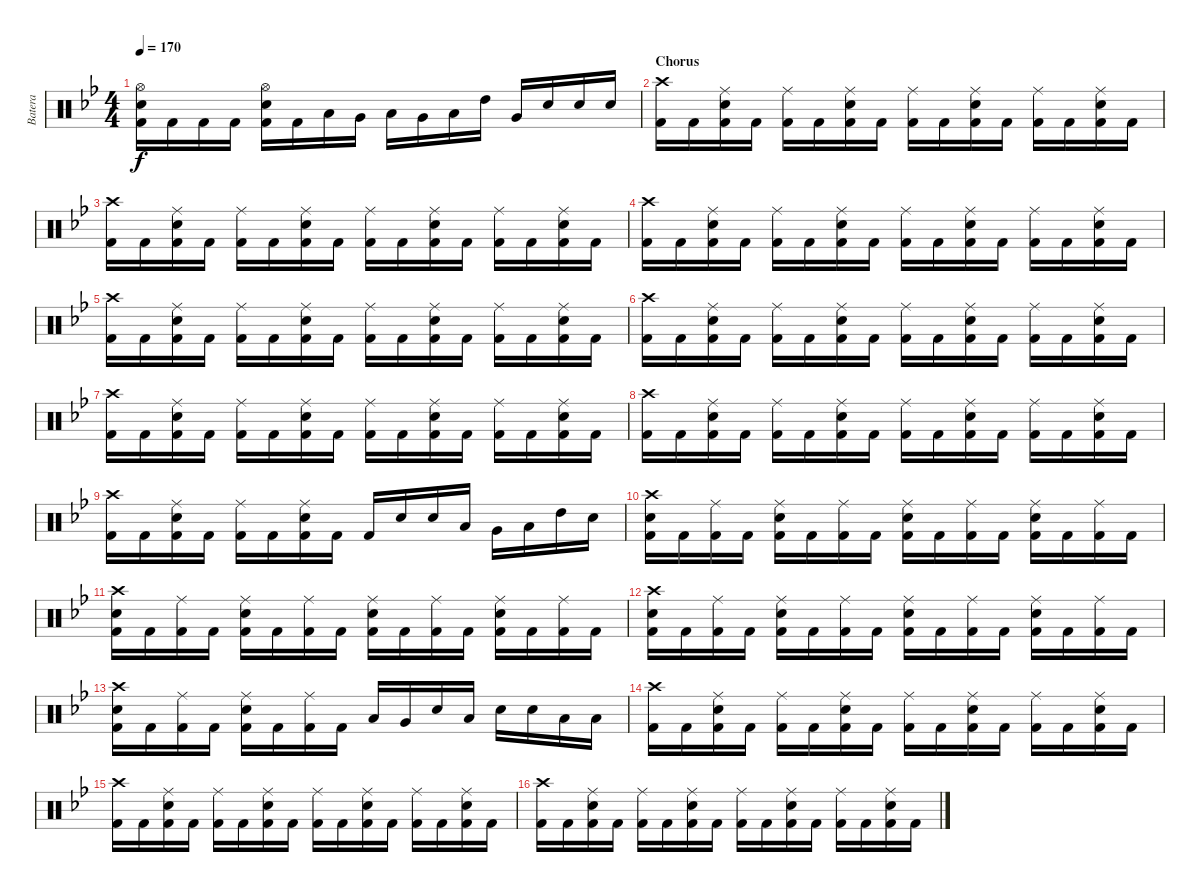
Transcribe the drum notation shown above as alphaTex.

\track ("Batera" "Batera") {instrument percussion}
\staff {score}
\articulation defaults
\ts (4 4)
\tempo 170
\clef neutral
\ks bb
("Hi-Hat (open)" "Electric Snare (hit)" "Kick (hit) 2").16{dy f} "Kick (hit) 2".16 "Kick (hit) 2".16 "Kick (hit) 2".16 ("Hi-Hat (open)" "Electric Snare (hit)" "Kick (hit) 2").16 "Kick (hit) 2".16 "Low Floor Tom (hit)".16 "Very Low Tom (hit)".16 "Low Floor Tom (hit)".16 "Very Low Tom (hit)".16 "Low Tom (hit)".16 "High Tom (hit)".16 "Very Low Tom (hit)".16 "Electric Snare (hit)".16 "Electric Snare (hit)".16 "Electric Snare (hit)".16 |
\section ("" "Chorus")
("Crash high (hit)" "Kick (hit) 2").16 "Kick (hit) 2".16 ("Ride (middle)" "Electric Snare (hit)" "Kick (hit) 2").16 "Kick (hit) 2".16 ("Ride (middle)" "Kick (hit) 2").16 "Kick (hit) 2".16 ("Ride (middle)" "Electric Snare (hit)" "Kick (hit) 2").16 "Kick (hit) 2".16 ("Ride (middle)" "Kick (hit) 2").16 "Kick (hit) 2".16 ("Ride (middle)" "Electric Snare (hit)" "Kick (hit) 2").16 "Kick (hit) 2".16 ("Ride (middle)" "Kick (hit) 2").16 "Kick (hit) 2".16 ("Ride (middle)" "Electric Snare (hit)" "Kick (hit) 2").16 "Kick (hit) 2".16 |
("Crash high (hit)" "Kick (hit) 2").16 "Kick (hit) 2".16 ("Ride (middle)" "Electric Snare (hit)" "Kick (hit) 2").16 "Kick (hit) 2".16 ("Ride (middle)" "Kick (hit) 2").16 "Kick (hit) 2".16 ("Ride (middle)" "Electric Snare (hit)" "Kick (hit) 2").16 "Kick (hit) 2".16 ("Ride (middle)" "Kick (hit) 2").16 "Kick (hit) 2".16 ("Ride (middle)" "Electric Snare (hit)" "Kick (hit) 2").16 "Kick (hit) 2".16 ("Ride (middle)" "Kick (hit) 2").16 "Kick (hit) 2".16 ("Ride (middle)" "Electric Snare (hit)" "Kick (hit) 2").16 "Kick (hit) 2".16 |
("Crash high (hit)" "Kick (hit) 2").16 "Kick (hit) 2".16 ("Ride (middle)" "Electric Snare (hit)" "Kick (hit) 2").16 "Kick (hit) 2".16 ("Ride (middle)" "Kick (hit) 2").16 "Kick (hit) 2".16 ("Ride (middle)" "Electric Snare (hit)" "Kick (hit) 2").16 "Kick (hit) 2".16 ("Ride (middle)" "Kick (hit) 2").16 "Kick (hit) 2".16 ("Ride (middle)" "Electric Snare (hit)" "Kick (hit) 2").16 "Kick (hit) 2".16 ("Ride (middle)" "Kick (hit) 2").16 "Kick (hit) 2".16 ("Ride (middle)" "Electric Snare (hit)" "Kick (hit) 2").16 "Kick (hit) 2".16 |
("Crash high (hit)" "Kick (hit) 2").16 "Kick (hit) 2".16 ("Ride (middle)" "Electric Snare (hit)" "Kick (hit) 2").16 "Kick (hit) 2".16 ("Ride (middle)" "Kick (hit) 2").16 "Kick (hit) 2".16 ("Ride (middle)" "Electric Snare (hit)" "Kick (hit) 2").16 "Kick (hit) 2".16 ("Ride (middle)" "Kick (hit) 2").16 "Kick (hit) 2".16 ("Ride (middle)" "Electric Snare (hit)" "Kick (hit) 2").16 "Kick (hit) 2".16 ("Ride (middle)" "Kick (hit) 2").16 "Kick (hit) 2".16 ("Ride (middle)" "Electric Snare (hit)" "Kick (hit) 2").16 "Kick (hit) 2".16 |
("Crash high (hit)" "Kick (hit) 2").16 "Kick (hit) 2".16 ("Ride (middle)" "Electric Snare (hit)" "Kick (hit) 2").16 "Kick (hit) 2".16 ("Ride (middle)" "Kick (hit) 2").16 "Kick (hit) 2".16 ("Ride (middle)" "Electric Snare (hit)" "Kick (hit) 2").16 "Kick (hit) 2".16 ("Ride (middle)" "Kick (hit) 2").16 "Kick (hit) 2".16 ("Ride (middle)" "Electric Snare (hit)" "Kick (hit) 2").16 "Kick (hit) 2".16 ("Ride (middle)" "Kick (hit) 2").16 "Kick (hit) 2".16 ("Ride (middle)" "Electric Snare (hit)" "Kick (hit) 2").16 "Kick (hit) 2".16 |
("Crash high (hit)" "Kick (hit) 2").16 "Kick (hit) 2".16 ("Ride (middle)" "Electric Snare (hit)" "Kick (hit) 2").16 "Kick (hit) 2".16 ("Ride (middle)" "Kick (hit) 2").16 "Kick (hit) 2".16 ("Ride (middle)" "Electric Snare (hit)" "Kick (hit) 2").16 "Kick (hit) 2".16 ("Ride (middle)" "Kick (hit) 2").16 "Kick (hit) 2".16 ("Ride (middle)" "Electric Snare (hit)" "Kick (hit) 2").16 "Kick (hit) 2".16 ("Ride (middle)" "Kick (hit) 2").16 "Kick (hit) 2".16 ("Ride (middle)" "Electric Snare (hit)" "Kick (hit) 2").16 "Kick (hit) 2".16 |
("Crash high (hit)" "Kick (hit) 2").16 "Kick (hit) 2".16 ("Ride (middle)" "Electric Snare (hit)" "Kick (hit) 2").16 "Kick (hit) 2".16 ("Ride (middle)" "Kick (hit) 2").16 "Kick (hit) 2".16 ("Ride (middle)" "Electric Snare (hit)" "Kick (hit) 2").16 "Kick (hit) 2".16 ("Ride (middle)" "Kick (hit) 2").16 "Kick (hit) 2".16 ("Ride (middle)" "Electric Snare (hit)" "Kick (hit) 2").16 "Kick (hit) 2".16 ("Ride (middle)" "Kick (hit) 2").16 "Kick (hit) 2".16 ("Ride (middle)" "Electric Snare (hit)" "Kick (hit) 2").16 "Kick (hit) 2".16 |
("Crash high (hit)" "Kick (hit) 2").16 "Kick (hit) 2".16 ("Ride (middle)" "Electric Snare (hit)" "Kick (hit) 2").16 "Kick (hit) 2".16 ("Ride (middle)" "Kick (hit) 2").16 "Kick (hit) 2".16 ("Ride (middle)" "Electric Snare (hit)" "Kick (hit) 2").16 "Kick (hit) 2".16 "Kick (hit) 2".16 "Electric Snare (hit)".16 "Electric Snare (hit)".16 "Low Floor Tom (hit)".16 "Very Low Tom (hit)".16 "Low Tom (hit)".16 "High Tom (hit)".16 "Electric Snare (hit)".16 |
("Crash high (hit)" "Electric Snare (hit)" "Kick (hit) 2").16 "Kick (hit) 2".16 ("Ride (middle)" "Kick (hit) 2").16 "Kick (hit) 2".16 ("Ride (middle)" "Electric Snare (hit)" "Kick (hit) 2").16 "Kick (hit) 2".16 ("Ride (middle)" "Kick (hit) 2").16 "Kick (hit) 2".16 ("Ride (middle)" "Electric Snare (hit)" "Kick (hit) 2").16 "Kick (hit) 2".16 ("Ride (middle)" "Kick (hit) 2").16 "Kick (hit) 2".16 ("Ride (middle)" "Electric Snare (hit)" "Kick (hit) 2").16 "Kick (hit) 2".16 ("Ride (middle)" "Kick (hit) 2").16 "Kick (hit) 2".16 |
("Crash high (hit)" "Electric Snare (hit)" "Kick (hit) 2").16 "Kick (hit) 2".16 ("Ride (middle)" "Kick (hit) 2").16 "Kick (hit) 2".16 ("Ride (middle)" "Electric Snare (hit)" "Kick (hit) 2").16 "Kick (hit) 2".16 ("Ride (middle)" "Kick (hit) 2").16 "Kick (hit) 2".16 ("Ride (middle)" "Electric Snare (hit)" "Kick (hit) 2").16 "Kick (hit) 2".16 ("Ride (middle)" "Kick (hit) 2").16 "Kick (hit) 2".16 ("Ride (middle)" "Electric Snare (hit)" "Kick (hit) 2").16 "Kick (hit) 2".16 ("Ride (middle)" "Kick (hit) 2").16 "Kick (hit) 2".16 |
("Crash high (hit)" "Electric Snare (hit)" "Kick (hit) 2").16 "Kick (hit) 2".16 ("Ride (middle)" "Kick (hit) 2").16 "Kick (hit) 2".16 ("Ride (middle)" "Electric Snare (hit)" "Kick (hit) 2").16 "Kick (hit) 2".16 ("Ride (middle)" "Kick (hit) 2").16 "Kick (hit) 2".16 ("Ride (middle)" "Electric Snare (hit)" "Kick (hit) 2").16 "Kick (hit) 2".16 ("Ride (middle)" "Kick (hit) 2").16 "Kick (hit) 2".16 ("Ride (middle)" "Electric Snare (hit)" "Kick (hit) 2").16 "Kick (hit) 2".16 ("Ride (middle)" "Kick (hit) 2").16 "Kick (hit) 2".16 |
("Crash high (hit)" "Electric Snare (hit)" "Kick (hit) 2").16 "Kick (hit) 2".16 ("Ride (middle)" "Kick (hit) 2").16 "Kick (hit) 2".16 ("Ride (middle)" "Electric Snare (hit)" "Kick (hit) 2").16 "Kick (hit) 2".16 ("Ride (middle)" "Kick (hit) 2").16 "Kick (hit) 2".16 "Low Floor Tom (hit)".16 "Very Low Tom (hit)".16 "Electric Snare (hit)".16 "Low Tom (hit)".16 "Electric Snare (hit)".16 "Electric Snare (hit)".16 "Low Floor Tom (hit)".16 "Low Tom (hit)".16 |
("Crash high (hit)" "Kick (hit) 2").16 "Kick (hit) 2".16 ("Ride (middle)" "Electric Snare (hit)" "Kick (hit) 2").16 "Kick (hit) 2".16 ("Ride (middle)" "Kick (hit) 2").16 "Kick (hit) 2".16 ("Ride (middle)" "Electric Snare (hit)" "Kick (hit) 2").16 "Kick (hit) 2".16 ("Ride (middle)" "Kick (hit) 2").16 "Kick (hit) 2".16 ("Ride (middle)" "Electric Snare (hit)" "Kick (hit) 2").16 "Kick (hit) 2".16 ("Ride (middle)" "Kick (hit) 2").16 "Kick (hit) 2".16 ("Ride (middle)" "Electric Snare (hit)" "Kick (hit) 2").16 "Kick (hit) 2".16 |
("Crash high (hit)" "Kick (hit) 2").16 "Kick (hit) 2".16 ("Ride (middle)" "Electric Snare (hit)" "Kick (hit) 2").16 "Kick (hit) 2".16 ("Ride (middle)" "Kick (hit) 2").16 "Kick (hit) 2".16 ("Ride (middle)" "Electric Snare (hit)" "Kick (hit) 2").16 "Kick (hit) 2".16 ("Ride (middle)" "Kick (hit) 2").16 "Kick (hit) 2".16 ("Ride (middle)" "Electric Snare (hit)" "Kick (hit) 2").16 "Kick (hit) 2".16 ("Ride (middle)" "Kick (hit) 2").16 "Kick (hit) 2".16 ("Ride (middle)" "Electric Snare (hit)" "Kick (hit) 2").16 "Kick (hit) 2".16 |
("Crash high (hit)" "Kick (hit) 2").16 "Kick (hit) 2".16 ("Ride (middle)" "Electric Snare (hit)" "Kick (hit) 2").16 "Kick (hit) 2".16 ("Ride (middle)" "Kick (hit) 2").16 "Kick (hit) 2".16 ("Ride (middle)" "Electric Snare (hit)" "Kick (hit) 2").16 "Kick (hit) 2".16 ("Ride (middle)" "Kick (hit) 2").16 "Kick (hit) 2".16 ("Ride (middle)" "Electric Snare (hit)" "Kick (hit) 2").16 "Kick (hit) 2".16 ("Ride (middle)" "Kick (hit) 2").16 "Kick (hit) 2".16 ("Ride (middle)" "Electric Snare (hit)" "Kick (hit) 2").16 "Kick (hit) 2".16
